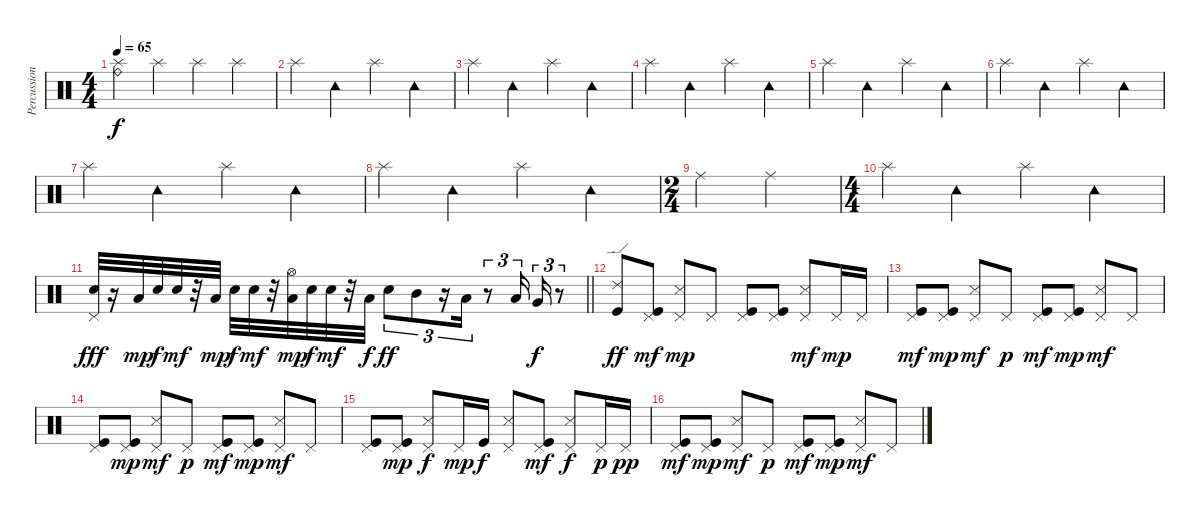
\track ("Percussions" "Percussion") {instrument percussion}
\staff {score}
\articulation defaults
\ts (4 4)
\tempo 65
\clef neutral
\ks c
("Ride (bell)" "Splash (hit)").4{dy f} "Splash (hit)".4 "Splash (hit)".4 "Splash (hit)".4 |
"Splash (hit)".4 "Tambourine (hit)".4 "Splash (hit)".4 "Tambourine (hit)".4 |
"Splash (hit)".4 "Tambourine (hit)".4 "Splash (hit)".4 "Tambourine (hit)".4 |
"Splash (hit)".4 "Tambourine (hit)".4 "Splash (hit)".4 "Tambourine (hit)".4 |
"Splash (hit)".4 "Tambourine (hit)".4 "Splash (hit)".4 "Tambourine (hit)".4 |
"Splash (hit)".4 "Tambourine (hit)".4 "Splash (hit)".4 "Tambourine (hit)".4 |
"Splash (hit)".4 "Tambourine (hit)".4 "Splash (hit)".4 "Tambourine (hit)".4 |
"Splash (hit)".4 "Tambourine (hit)".4 "Splash (hit)".4 "Tambourine (hit)".4 |
\ts (2 4)
"Ride (middle)".4 "Ride (middle)".4 |
\ts (4 4)
"Splash (hit)".4 "Tambourine (hit)".4 "Splash (hit)".4 "Tambourine (hit)".4 |
\barLineRight lightlight
("Pedal Hi-Hat (hit)" "Electric Snare (hit)").32{dy fff} r.16 "Low Tom (hit)".32{dy mp} "Electric Snare (hit)".32{dy f} "Electric Snare (hit)".32{dy mf} r.32 "Low Tom (hit)".32{dy mp} "Electric Snare (hit)".32{dy f} "Electric Snare (hit)".32{dy mf} r.32 ("Hi-Hat (open)" "Low Tom (hit)").32{dy mp} "Electric Snare (hit)".32{dy f} "Electric Snare (hit)".32{dy mf} r.32 "Low Tom (hit)".32{dy f} "Electric Snare (hit)".8{tu (3 2) dy ff} "Mid Tom (hit)".8{tu (3 2)} r.16{tu (3 2)} "Low Tom (hit)".16{tu (3 2)} r.8{tu (3 2)} "Low Tom (hit)".16{tu (3 2)} "Very Low Tom (hit)".16{tu (3 2) dy f} r.8{tu (3 2)} |
("Ride (edge) 2" "Kick (hit)").8{dy ff} ("Pedal Hi-Hat (hit)" "Kick (hit)").8{dy mf} ("Pedal Hi-Hat (hit)" "Snare (side stick) 3").8{dy mp} "Pedal Hi-Hat (hit)".8 ("Pedal Hi-Hat (hit)" "Kick (hit)").8 ("Pedal Hi-Hat (hit)" "Kick (hit)").8 ("Pedal Hi-Hat (hit)" "Snare (side stick) 3").8{dy mf} "Pedal Hi-Hat (hit)".16{dy mp} "Pedal Hi-Hat (hit)".16 |
("Pedal Hi-Hat (hit)" "Kick (hit)").8{dy mf} ("Pedal Hi-Hat (hit)" "Kick (hit)").8{dy mp} ("Pedal Hi-Hat (hit)" "Snare (side stick) 3").8{txt "" dy mf} "Pedal Hi-Hat (hit)".8{dy p} ("Pedal Hi-Hat (hit)" "Kick (hit)").8{dy mf} ("Pedal Hi-Hat (hit)" "Kick (hit)").8{dy mp} ("Pedal Hi-Hat (hit)" "Snare (side stick) 3").8{dy mf} "Pedal Hi-Hat (hit)".8 |
("Pedal Hi-Hat (hit)" "Kick (hit)").8 ("Pedal Hi-Hat (hit)" "Kick (hit)").8{dy mp} ("Pedal Hi-Hat (hit)" "Snare (side stick) 3").8{dy mf} "Pedal Hi-Hat (hit)".8{dy p} ("Pedal Hi-Hat (hit)" "Kick (hit)").8{dy mf} ("Pedal Hi-Hat (hit)" "Kick (hit)").8{dy mp} ("Pedal Hi-Hat (hit)" "Snare (side stick) 3").8{dy mf} "Pedal Hi-Hat (hit)".8 |
("Pedal Hi-Hat (hit)" "Kick (hit)").8 ("Pedal Hi-Hat (hit)" "Kick (hit)").8{dy mp} ("Pedal Hi-Hat (hit)" "Snare (side stick) 3").8{dy f} "Pedal Hi-Hat (hit)".16{dy mp} "Kick (hit)".16{dy f} ("Pedal Hi-Hat (hit)" "Snare (side stick) 3").8 ("Pedal Hi-Hat (hit)" "Kick (hit)").8{dy mf} ("Pedal Hi-Hat (hit)" "Snare (side stick) 3").8{dy f} "Pedal Hi-Hat (hit)".16{dy p} "Pedal Hi-Hat (hit)".16{dy pp} |
("Pedal Hi-Hat (hit)" "Kick (hit)").8{dy mf} ("Pedal Hi-Hat (hit)" "Kick (hit)").8{dy mp} ("Pedal Hi-Hat (hit)" "Snare (side stick) 3").8{dy mf} "Pedal Hi-Hat (hit)".8{dy p} ("Pedal Hi-Hat (hit)" "Kick (hit)").8{dy mf} ("Pedal Hi-Hat (hit)" "Kick (hit)").8{dy mp} ("Pedal Hi-Hat (hit)" "Snare (side stick) 3").8{dy mf} "Pedal Hi-Hat (hit)".8
